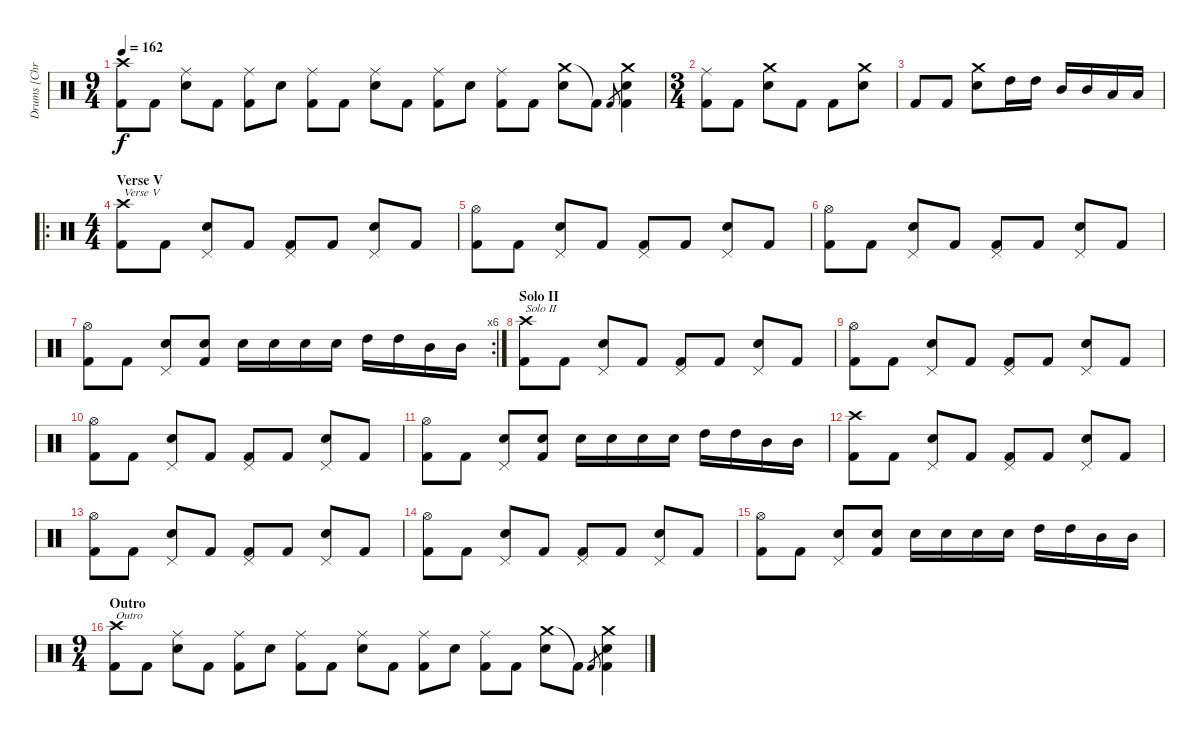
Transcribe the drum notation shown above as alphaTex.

\track ("Drums [Chris Maitland]" "Drums [Chr") {instrument percussion}
\staff {score}
\articulation defaults
\ts (9 4)
\tempo 162
\clef neutral
\ks c
("Crash high (hit)" "Kick (hit) 2").8{dy f} "Kick (hit) 2".8 ("Ride (middle)" "Electric Snare (hit)").8 "Kick (hit) 2".8 ("Ride (middle)" "Kick (hit) 2").8 "Electric Snare (hit)".8 ("Ride (middle)" "Kick (hit) 2").8 "Kick (hit) 2".8 ("Ride (middle)" "Electric Snare (hit)").8 "Kick (hit) 2".8 ("Ride (middle)" "Kick (hit) 2").8 "Electric Snare (hit)".8 ("Ride (middle)" "Kick (hit) 2").8 "Kick (hit) 2".8 ("Crash medium (hit)" "Electric Snare (hit)").8 "Kick (hit) 2"{t}.8 "Kick (hit) 2".8{gr} ("Crash medium (hit)" "Electric Snare (hit)" "Kick (hit) 2").4 |
\ts (3 4)
("Ride (middle)" "Kick (hit) 2").8 "Kick (hit) 2".8 ("Crash medium (hit)" "Electric Snare (hit)").8 "Kick (hit) 2".8 "Kick (hit) 2".8 ("Crash medium (hit)" "Electric Snare (hit)").8 |
"Kick (hit) 2".8 "Kick (hit) 2".8 ("Crash medium (hit)" "Electric Snare (hit)").8 "High Tom (hit)".16 "High Tom (hit)".16 "Mid Tom (hit)".16 "Mid Tom (hit)".16 "Low Tom (hit)".16 "Low Tom (hit)".16 |
\ro
\ts (4 4)
\section ("" "Verse V")
("Crash high (hit)" "Kick (hit) 2").8{txt "Verse V"} "Kick (hit) 2".8 ("Pedal Hi-Hat (hit)" "Electric Snare (hit)").8 "Kick (hit) 2".8 ("Pedal Hi-Hat (hit)" "Kick (hit) 2").8 "Kick (hit) 2".8 ("Pedal Hi-Hat (hit)" "Electric Snare (hit)").8 "Kick (hit) 2".8 |
("Hi-Hat (open)" "Kick (hit) 2").8 "Kick (hit) 2".8 ("Pedal Hi-Hat (hit)" "Electric Snare (hit)").8 "Kick (hit) 2".8 ("Pedal Hi-Hat (hit)" "Kick (hit) 2").8 "Kick (hit) 2".8 ("Pedal Hi-Hat (hit)" "Electric Snare (hit)").8 "Kick (hit) 2".8 |
("Hi-Hat (open)" "Kick (hit) 2").8 "Kick (hit) 2".8 ("Pedal Hi-Hat (hit)" "Electric Snare (hit)").8 "Kick (hit) 2".8 ("Pedal Hi-Hat (hit)" "Kick (hit) 2").8 "Kick (hit) 2".8 ("Pedal Hi-Hat (hit)" "Electric Snare (hit)").8 "Kick (hit) 2".8 |
\rc 6
("Hi-Hat (open)" "Kick (hit) 2").8 "Kick (hit) 2".8 ("Pedal Hi-Hat (hit)" "Electric Snare (hit)").8 ("Electric Snare (hit)" "Kick (hit) 2").8 "Electric Snare (hit)".16 "Electric Snare (hit)".16 "Electric Snare (hit)".16 "Electric Snare (hit)".16 "High Tom (hit)".16 "High Tom (hit)".16 "Mid Tom (hit)".16 "Mid Tom (hit)".16 |
\section ("" "Solo II")
("Crash high (hit)" "Kick (hit) 2").8{txt "Solo II"} "Kick (hit) 2".8 ("Pedal Hi-Hat (hit)" "Electric Snare (hit)").8 "Kick (hit) 2".8 ("Pedal Hi-Hat (hit)" "Kick (hit) 2").8 "Kick (hit) 2".8 ("Pedal Hi-Hat (hit)" "Electric Snare (hit)").8 "Kick (hit) 2".8 |
("Hi-Hat (open)" "Kick (hit) 2").8 "Kick (hit) 2".8 ("Pedal Hi-Hat (hit)" "Electric Snare (hit)").8 "Kick (hit) 2".8 ("Pedal Hi-Hat (hit)" "Kick (hit) 2").8 "Kick (hit) 2".8 ("Pedal Hi-Hat (hit)" "Electric Snare (hit)").8 "Kick (hit) 2".8 |
("Hi-Hat (open)" "Kick (hit) 2").8 "Kick (hit) 2".8 ("Pedal Hi-Hat (hit)" "Electric Snare (hit)").8 "Kick (hit) 2".8 ("Pedal Hi-Hat (hit)" "Kick (hit) 2").8 "Kick (hit) 2".8 ("Pedal Hi-Hat (hit)" "Electric Snare (hit)").8 "Kick (hit) 2".8 |
("Hi-Hat (open)" "Kick (hit) 2").8 "Kick (hit) 2".8 ("Pedal Hi-Hat (hit)" "Electric Snare (hit)").8 ("Electric Snare (hit)" "Kick (hit) 2").8 "Electric Snare (hit)".16 "Electric Snare (hit)".16 "Electric Snare (hit)".16 "Electric Snare (hit)".16 "High Tom (hit)".16 "High Tom (hit)".16 "Mid Tom (hit)".16 "Mid Tom (hit)".16 |
("Crash high (hit)" "Kick (hit) 2").8 "Kick (hit) 2".8 ("Pedal Hi-Hat (hit)" "Electric Snare (hit)").8 "Kick (hit) 2".8 ("Pedal Hi-Hat (hit)" "Kick (hit) 2").8 "Kick (hit) 2".8 ("Pedal Hi-Hat (hit)" "Electric Snare (hit)").8 "Kick (hit) 2".8 |
("Hi-Hat (open)" "Kick (hit) 2").8 "Kick (hit) 2".8 ("Pedal Hi-Hat (hit)" "Electric Snare (hit)").8 "Kick (hit) 2".8 ("Pedal Hi-Hat (hit)" "Kick (hit) 2").8 "Kick (hit) 2".8 ("Pedal Hi-Hat (hit)" "Electric Snare (hit)").8 "Kick (hit) 2".8 |
("Hi-Hat (open)" "Kick (hit) 2").8 "Kick (hit) 2".8 ("Pedal Hi-Hat (hit)" "Electric Snare (hit)").8 "Kick (hit) 2".8 ("Pedal Hi-Hat (hit)" "Kick (hit) 2").8 "Kick (hit) 2".8 ("Pedal Hi-Hat (hit)" "Electric Snare (hit)").8 "Kick (hit) 2".8 |
("Hi-Hat (open)" "Kick (hit) 2").8 "Kick (hit) 2".8 ("Pedal Hi-Hat (hit)" "Electric Snare (hit)").8 ("Electric Snare (hit)" "Kick (hit) 2").8 "Electric Snare (hit)".16 "Electric Snare (hit)".16 "Electric Snare (hit)".16 "Electric Snare (hit)".16 "High Tom (hit)".16 "High Tom (hit)".16 "Mid Tom (hit)".16 "Mid Tom (hit)".16 |
\ts (9 4)
\section ("" "Outro")
("Crash high (hit)" "Kick (hit) 2").8{txt "Outro"} "Kick (hit) 2".8 ("Ride (middle)" "Electric Snare (hit)").8 "Kick (hit) 2".8 ("Ride (middle)" "Kick (hit) 2").8 "Electric Snare (hit)".8 ("Ride (middle)" "Kick (hit) 2").8 "Kick (hit) 2".8 ("Ride (middle)" "Electric Snare (hit)").8 "Kick (hit) 2".8 ("Ride (middle)" "Kick (hit) 2").8 "Electric Snare (hit)".8 ("Ride (middle)" "Kick (hit) 2").8 "Kick (hit) 2".8 ("Crash medium (hit)" "Electric Snare (hit)").8 "Kick (hit) 2"{t}.8 "Kick (hit) 2".8{gr} ("Crash medium (hit)" "Electric Snare (hit)" "Kick (hit) 2").4
